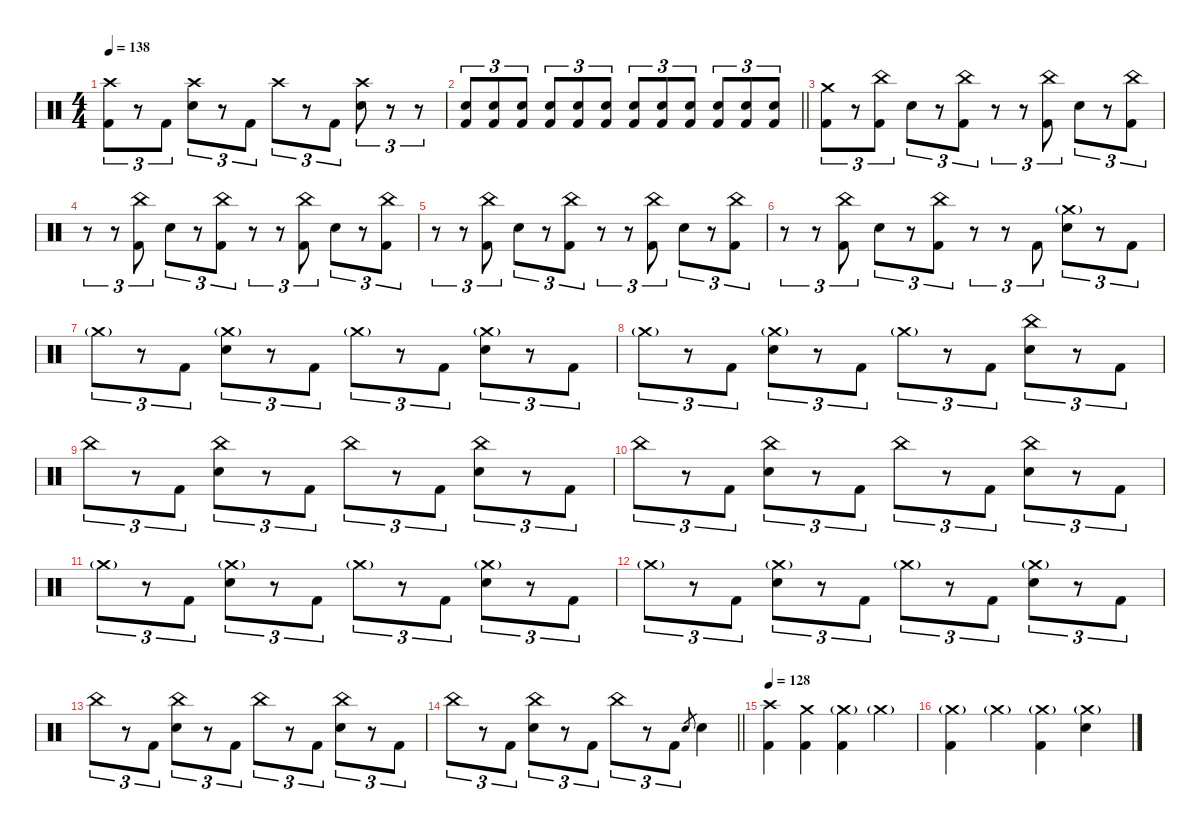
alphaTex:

\defaultSystemsLayout 4
\hideDynamics
\bracketExtendMode nobrackets
\singleTrackTrackNamePolicy hidden
\multiTrackTrackNamePolicy hidden
\otherSystemsTrackNameOrientation horizontal
\track ("Gene Hoglan" "drm.") {instrument percussion}
\staff {score}
\articulation defaults
\ts (4 4)
\tempo 138
\clef neutral
\ks c
("Crash high (hit)" "Kick (hit) 2").8{tu (3 2) dy f beam Down} r.8{tu (3 2) beam Down} "Kick (hit) 2".8{tu (3 2) beam Down} ("Crash high (hit)" "Snare (hit) 2").8{tu (3 2) beam Down} r.8{tu (3 2) beam Down} "Kick (hit) 2".8{tu (3 2) beam Down} "Crash high (hit)".8{tu (3 2) beam Down} r.8{tu (3 2) beam Down} "Kick (hit) 2".8{tu (3 2) beam Down} ("Crash high (hit)" "Snare (hit) 2").8{tu (3 2) beam Down} r.8{tu (3 2) beam Down} r.8{tu (3 2) beam Down} |
\barLineRight lightlight
("Snare (hit) 2" "Kick (hit) 2").8{tu (3 2) dy fff beam Up} ("Snare (hit) 2" "Kick (hit) 2").8{tu (3 2) beam Up} ("Snare (hit) 2" "Kick (hit) 2").8{tu (3 2) beam Up} ("Snare (hit) 2" "Kick (hit) 2").8{tu (3 2) beam Up} ("Snare (hit) 2" "Kick (hit) 2").8{tu (3 2) beam Up} ("Snare (hit) 2" "Kick (hit) 2").8{tu (3 2) beam Up} ("Snare (hit) 2" "Kick (hit) 2").8{tu (3 2) beam Up} ("Snare (hit) 2" "Kick (hit) 2").8{tu (3 2) beam Up} ("Snare (hit) 2" "Kick (hit) 2").8{tu (3 2) beam Up} ("Snare (hit) 2" "Kick (hit) 2").8{tu (3 2) beam Up} ("Snare (hit) 2" "Kick (hit) 2").8{tu (3 2) beam Up} ("Snare (hit) 2" "Kick (hit) 2").8{tu (3 2) beam Up} |
("Crash medium (hit)" "Kick (hit) 2").8{tu (3 2) dy f beam Down} r.8{tu (3 2) beam Down} ("China (hit)" "Kick (hit) 2").8{tu (3 2) beam Down} "Snare (hit) 2".8{tu (3 2) beam Down} r.8{tu (3 2) beam Down} ("China (hit)" "Kick (hit) 2").8{tu (3 2) beam Down} r.8{tu (3 2) beam Down} r.8{tu (3 2) beam Down} ("China (hit)" "Kick (hit) 2").8{tu (3 2) beam Down} "Snare (hit) 2".8{tu (3 2) beam Down} r.8{tu (3 2) beam Down} ("China (hit)" "Kick (hit) 2").8{tu (3 2) beam Down} |
r.8{tu (3 2) beam Down} r.8{tu (3 2) beam Down} ("China (hit)" "Kick (hit) 2").8{tu (3 2) beam Down} "Snare (hit) 2".8{tu (3 2) beam Down} r.8{tu (3 2) beam Down} ("China (hit)" "Kick (hit) 2").8{tu (3 2) beam Down} r.8{tu (3 2) beam Down} r.8{tu (3 2) beam Down} ("China (hit)" "Kick (hit) 2").8{tu (3 2) beam Down} "Snare (hit) 2".8{tu (3 2) beam Down} r.8{tu (3 2) beam Down} ("China (hit)" "Kick (hit) 2").8{tu (3 2) beam Down} |
r.8{tu (3 2) beam Down} r.8{tu (3 2) beam Down} ("China (hit)" "Kick (hit) 2").8{tu (3 2) beam Down} "Snare (hit) 2".8{tu (3 2) beam Down} r.8{tu (3 2) beam Down} ("China (hit)" "Kick (hit) 2").8{tu (3 2) beam Down} r.8{tu (3 2) beam Down} r.8{tu (3 2) beam Down} ("China (hit)" "Kick (hit) 2").8{tu (3 2) beam Down} "Snare (hit) 2".8{tu (3 2) beam Down} r.8{tu (3 2) beam Down} ("China (hit)" "Kick (hit) 2").8{tu (3 2) beam Down} |
r.8{tu (3 2) beam Down} r.8{tu (3 2) beam Down} ("China (hit)" "Kick (hit) 2").8{tu (3 2) beam Down} "Snare (hit) 2".8{tu (3 2) beam Down} r.8{tu (3 2) beam Down} ("China (hit)" "Kick (hit) 2").8{tu (3 2) beam Down} r.8{tu (3 2) beam Down} r.8{tu (3 2) beam Down} "Kick (hit) 2".8{tu (3 2) beam Up} ("Crash medium (hit)"{g} "Snare (hit) 2").8{tu (3 2) beam Down} r.8{tu (3 2) beam Down} "Kick (hit) 2".8{tu (3 2) beam Down} |
"Crash medium (hit)"{g}.8{tu (3 2) dy mf beam Down} r.8{tu (3 2) beam Down} "Kick (hit) 2".8{tu (3 2) dy f beam Down} ("Crash medium (hit)"{g} "Snare (hit) 2").8{tu (3 2) beam Down} r.8{tu (3 2) beam Down} "Kick (hit) 2".8{tu (3 2) beam Down} "Crash medium (hit)"{g}.8{tu (3 2) dy mf beam Down} r.8{tu (3 2) beam Down} "Kick (hit) 2".8{tu (3 2) dy f beam Down} ("Crash medium (hit)"{g} "Snare (hit) 2").8{tu (3 2) beam Down} r.8{tu (3 2) beam Down} "Kick (hit) 2".8{tu (3 2) beam Down} |
"Crash medium (hit)"{g}.8{tu (3 2) dy mf beam Down} r.8{tu (3 2) beam Down} "Kick (hit) 2".8{tu (3 2) dy f beam Down} ("Crash medium (hit)"{g} "Snare (hit) 2").8{tu (3 2) beam Down} r.8{tu (3 2) beam Down} "Kick (hit) 2".8{tu (3 2) beam Down} "Crash medium (hit)"{g}.8{tu (3 2) dy mf beam Down} r.8{tu (3 2) beam Down} "Kick (hit) 2".8{tu (3 2) dy f beam Down} ("China (hit)" "Snare (hit) 2").8{tu (3 2) beam Down} r.8{tu (3 2) beam Down} "Kick (hit) 2".8{tu (3 2) beam Down} |
"China (hit)".8{tu (3 2) beam Down} r.8{tu (3 2) beam Down} "Kick (hit) 2".8{tu (3 2) beam Down} ("China (hit)" "Snare (hit) 2").8{tu (3 2) beam Down} r.8{tu (3 2) beam Down} "Kick (hit) 2".8{tu (3 2) beam Down} "China (hit)".8{tu (3 2) beam Down} r.8{tu (3 2) beam Down} "Kick (hit) 2".8{tu (3 2) beam Down} ("China (hit)" "Snare (hit) 2").8{tu (3 2) beam Down} r.8{tu (3 2) beam Down} "Kick (hit) 2".8{tu (3 2) beam Down} |
"China (hit)".8{tu (3 2) beam Down} r.8{tu (3 2) beam Down} "Kick (hit) 2".8{tu (3 2) beam Down} ("China (hit)" "Snare (hit) 2").8{tu (3 2) beam Down} r.8{tu (3 2) beam Down} "Kick (hit) 2".8{tu (3 2) beam Down} "China (hit)".8{tu (3 2) beam Down} r.8{tu (3 2) beam Down} "Kick (hit) 2".8{tu (3 2) beam Down} ("China (hit)" "Snare (hit) 2").8{tu (3 2) beam Down} r.8{tu (3 2) beam Down} "Kick (hit) 2".8{tu (3 2) beam Down} |
"Crash medium (hit)"{g}.8{tu (3 2) dy mf beam Down} r.8{tu (3 2) beam Down} "Kick (hit) 2".8{tu (3 2) dy f beam Down} ("Crash medium (hit)"{g} "Snare (hit) 2").8{tu (3 2) beam Down} r.8{tu (3 2) beam Down} "Kick (hit) 2".8{tu (3 2) beam Down} "Crash medium (hit)"{g}.8{tu (3 2) dy mf beam Down} r.8{tu (3 2) beam Down} "Kick (hit) 2".8{tu (3 2) dy f beam Down} ("Crash medium (hit)"{g} "Snare (hit) 2").8{tu (3 2) beam Down} r.8{tu (3 2) beam Down} "Kick (hit) 2".8{tu (3 2) beam Down} |
"Crash medium (hit)"{g}.8{tu (3 2) dy mf beam Down} r.8{tu (3 2) beam Down} "Kick (hit) 2".8{tu (3 2) dy f beam Down} ("Crash medium (hit)"{g} "Snare (hit) 2").8{tu (3 2) beam Down} r.8{tu (3 2) beam Down} "Kick (hit) 2".8{tu (3 2) beam Down} "Crash medium (hit)"{g}.8{tu (3 2) dy mf beam Down} r.8{tu (3 2) beam Down} "Kick (hit) 2".8{tu (3 2) dy f beam Down} ("Crash medium (hit)"{g} "Snare (hit) 2").8{tu (3 2) beam Down} r.8{tu (3 2) beam Down} "Kick (hit) 2".8{tu (3 2) beam Down} |
"China (hit)".8{tu (3 2) beam Down} r.8{tu (3 2) beam Down} "Kick (hit) 2".8{tu (3 2) beam Down} ("China (hit)" "Snare (hit) 2").8{tu (3 2) beam Down} r.8{tu (3 2) beam Down} "Kick (hit) 2".8{tu (3 2) beam Down} "China (hit)".8{tu (3 2) beam Down} r.8{tu (3 2) beam Down} "Kick (hit) 2".8{tu (3 2) beam Down} ("China (hit)" "Snare (hit) 2").8{tu (3 2) beam Down} r.8{tu (3 2) beam Down} "Kick (hit) 2".8{tu (3 2) beam Down} |
\barLineRight lightlight "China (hit)".8{tu (3 2) beam Down}
r.8{tu (3 2) beam Down} "Kick (hit) 2".8{tu (3 2) beam Down} ("China (hit)" "Snare (hit) 2").8{tu (3 2) beam Down} r.8{tu (3 2) beam Down} "Kick (hit) 2".8{tu (3 2) beam Down} "China (hit)".8{tu (3 2) beam Down} r.8{tu (3 2) beam Down} "Kick (hit) 2".8{tu (3 2) beam Down} "Electric Snare (hit)".8{gr dy mf beam Up} "Snare (hit) 2".4{dy f beam Down} |
\tempo 128
("Crash high (hit)" "Kick (hit) 2").4{beam Down} ("Crash medium (hit)" "Kick (hit) 2").4{beam Down} ("Crash medium (hit)"{g} "Kick (hit) 2").4{beam Down} "Crash medium (hit)"{g}.4{dy mf beam Down} |
("Crash medium (hit)"{g} "Kick (hit) 2").4{dy f beam Down} "Crash medium (hit)"{g}.4{dy mf beam Down} ("Crash medium (hit)"{g} "Kick (hit) 2").4{dy f beam Down} ("Crash medium (hit)"{g} "Snare (hit) 2").4{beam Down}
